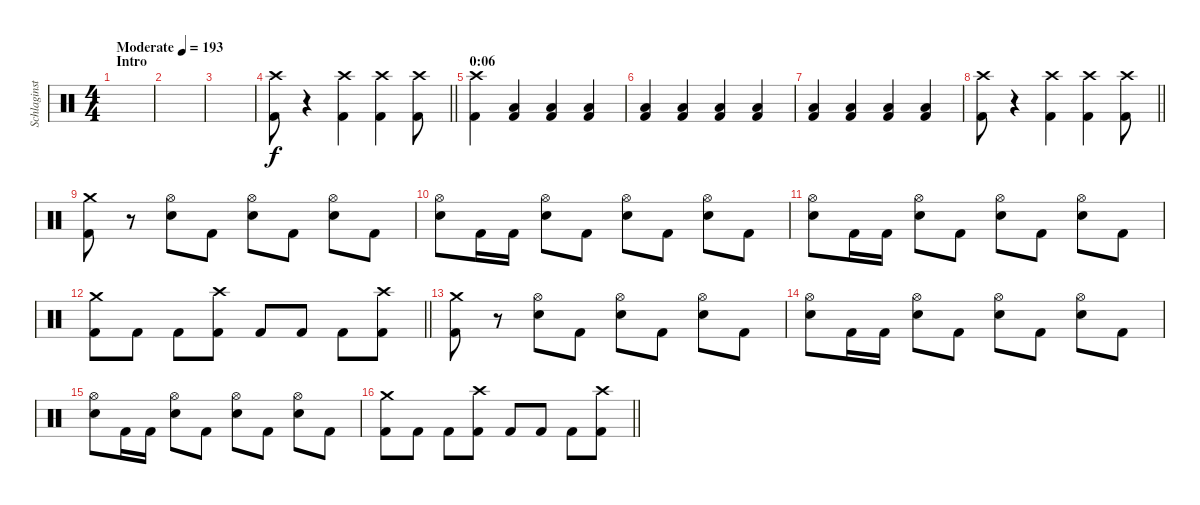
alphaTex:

\track ("Schlaginstrumente - Auswahl" "Schlaginst") {instrument percussion}
\staff {score}
\articulation defaults
\ts (4 4)
\section ("" "Intro")
\tempo (193 "Moderate")
\clef neutral
\ks c
|
|
|
\barLineRight lightlight
("Crash high (hit)" "Kick (hit) 2").8 r.4 ("Crash high (hit)" "Kick (hit) 2").4 ("Crash high (hit)" "Kick (hit) 2").4 ("Crash high (hit)" "Kick (hit) 2").8 |
\section ("" "0:06")
("Crash high (hit)" "Kick (hit) 2").4 ("Low Floor Tom (hit)" "Kick (hit) 2").4 ("Low Floor Tom (hit)" "Kick (hit) 2").4 ("Low Floor Tom (hit)" "Kick (hit) 2").4 |
("Low Floor Tom (hit)" "Kick (hit) 2").4 ("Low Floor Tom (hit)" "Kick (hit) 2").4 ("Low Floor Tom (hit)" "Kick (hit) 2").4 ("Low Floor Tom (hit)" "Kick (hit) 2").4 |
("Low Floor Tom (hit)" "Kick (hit) 2").4 ("Low Floor Tom (hit)" "Kick (hit) 2").4 ("Low Floor Tom (hit)" "Kick (hit) 2").4 ("Low Floor Tom (hit)" "Kick (hit) 2").4 |
\barLineRight lightlight
("Crash high (hit)" "Kick (hit) 2").8 r.4 ("Crash high (hit)" "Kick (hit) 2").4 ("Crash high (hit)" "Kick (hit) 2").4 ("Crash high (hit)" "Kick (hit) 2").8 |
("Crash medium (hit)" "Kick (hit) 2").8 r.8 ("Hi-Hat (open)" "Electric Snare (hit)").8 "Kick (hit) 2".8 ("Hi-Hat (open)" "Electric Snare (hit)").8 "Kick (hit) 2".8 ("Hi-Hat (open)" "Electric Snare (hit)").8 "Kick (hit) 2".8 |
("Hi-Hat (open)" "Electric Snare (hit)").8 "Kick (hit) 2".16 "Kick (hit) 2".16 ("Hi-Hat (open)" "Electric Snare (hit)").8 "Kick (hit) 2".8 ("Hi-Hat (open)" "Electric Snare (hit)").8 "Kick (hit) 2".8 ("Hi-Hat (open)" "Electric Snare (hit)").8 "Kick (hit) 2".8 |
("Hi-Hat (open)" "Electric Snare (hit)").8 "Kick (hit) 2".16 "Kick (hit) 2".16 ("Hi-Hat (open)" "Electric Snare (hit)").8 "Kick (hit) 2".8 ("Hi-Hat (open)" "Electric Snare (hit)").8 "Kick (hit) 2".8 ("Hi-Hat (open)" "Electric Snare (hit)").8 "Kick (hit) 2".8 |
\barLineRight lightlight
("Crash medium (hit)" "Kick (hit) 2").8 "Kick (hit) 2".8 "Kick (hit) 2".8 ("Crash high (hit)" "Kick (hit) 2").8 "Kick (hit) 2".8 "Kick (hit) 2".8 "Kick (hit) 2".8 ("Crash high (hit)" "Kick (hit) 2").8 |
("Crash medium (hit)" "Kick (hit) 2").8 r.8 ("Hi-Hat (open)" "Electric Snare (hit)").8 "Kick (hit) 2".8 ("Hi-Hat (open)" "Electric Snare (hit)").8 "Kick (hit) 2".8 ("Hi-Hat (open)" "Electric Snare (hit)").8 "Kick (hit) 2".8 |
("Hi-Hat (open)" "Electric Snare (hit)").8 "Kick (hit) 2".16 "Kick (hit) 2".16 ("Hi-Hat (open)" "Electric Snare (hit)").8 "Kick (hit) 2".8 ("Hi-Hat (open)" "Electric Snare (hit)").8 "Kick (hit) 2".8 ("Hi-Hat (open)" "Electric Snare (hit)").8 "Kick (hit) 2".8 |
("Hi-Hat (open)" "Electric Snare (hit)").8 "Kick (hit) 2".16 "Kick (hit) 2".16 ("Hi-Hat (open)" "Electric Snare (hit)").8 "Kick (hit) 2".8 ("Hi-Hat (open)" "Electric Snare (hit)").8 "Kick (hit) 2".8 ("Hi-Hat (open)" "Electric Snare (hit)").8 "Kick (hit) 2".8 |
\barLineRight lightlight
("Crash medium (hit)" "Kick (hit) 2").8 "Kick (hit) 2".8 "Kick (hit) 2".8 ("Crash high (hit)" "Kick (hit) 2").8 "Kick (hit) 2".8 "Kick (hit) 2".8 "Kick (hit) 2".8 ("Crash high (hit)" "Kick (hit) 2").8
